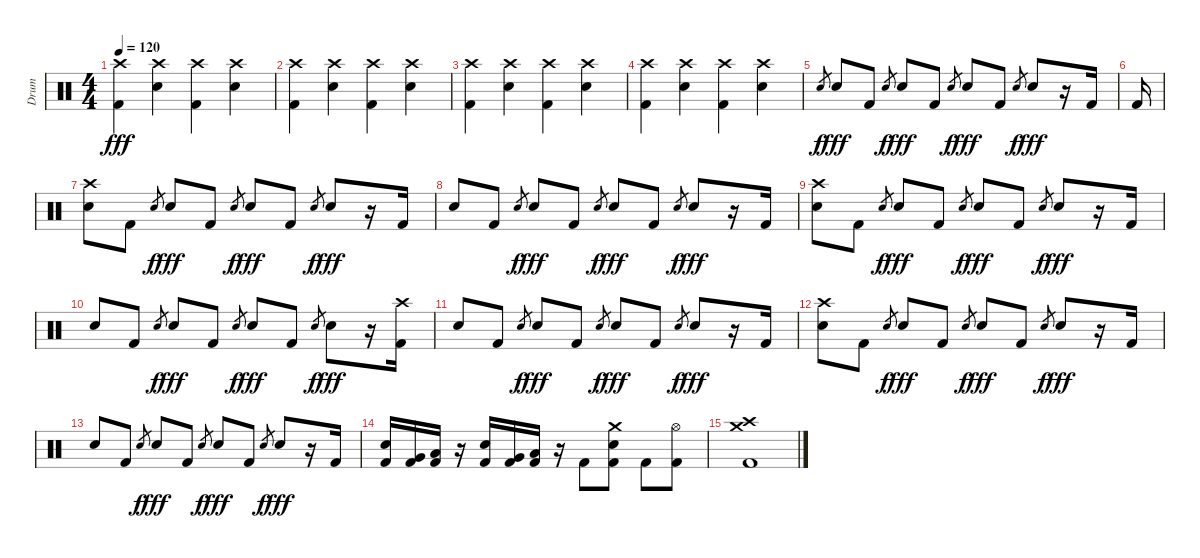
\track ("Drum" "Drum") {instrument percussion}
\staff {score}
\articulation defaults
\ts (4 4)
\tempo 120
\clef neutral
\ks c
("Crash high (hit)" "Kick (hit) 2").4{dy fff} ("Crash high (hit)" "Snare (hit) 2").4 ("Crash high (hit)" "Kick (hit) 2").4 ("Crash high (hit)" "Snare (hit) 2").4 |
("Crash high (hit)" "Kick (hit) 2").4 ("Crash high (hit)" "Snare (hit) 2").4 ("Crash high (hit)" "Kick (hit) 2").4 ("Crash high (hit)" "Snare (hit) 2").4 |
("Crash high (hit)" "Kick (hit) 2").4 ("Crash high (hit)" "Snare (hit) 2").4 ("Crash high (hit)" "Kick (hit) 2").4 ("Crash high (hit)" "Snare (hit) 2").4 |
("Crash high (hit)" "Kick (hit) 2").4 ("Crash high (hit)" "Snare (hit) 2").4 ("Crash high (hit)" "Kick (hit) 2").4 ("Crash high (hit)" "Snare (hit) 2").4 |
"Snare (hit) 2".8{gr dy f} "Snare (hit) 2".8{dy fff} "Kick (hit) 2".8 "Snare (hit) 2".8{gr dy f} "Snare (hit) 2".8{dy fff} "Kick (hit) 2".8 "Snare (hit) 2".8{gr dy f} "Snare (hit) 2".8{dy fff} "Kick (hit) 2".8 "Snare (hit) 2".8{gr dy f} "Snare (hit) 2".8{dy fff} r.16 "Kick (hit) 2".16 |
"Kick (hit) 2".16 |
("Crash high (hit)" "Snare (hit) 2").8 "Kick (hit) 2".8 "Snare (hit) 2".8{gr dy f} "Snare (hit) 2".8{dy fff} "Kick (hit) 2".8 "Snare (hit) 2".8{gr dy f} "Snare (hit) 2".8{dy fff} "Kick (hit) 2".8 "Snare (hit) 2".8{gr dy f} "Snare (hit) 2".8{dy fff} r.16 "Kick (hit) 2".16 |
"Snare (hit) 2".8 "Kick (hit) 2".8 "Snare (hit) 2".8{gr dy f} "Snare (hit) 2".8{dy fff} "Kick (hit) 2".8 "Snare (hit) 2".8{gr dy f} "Snare (hit) 2".8{dy fff} "Kick (hit) 2".8 "Snare (hit) 2".8{gr dy f} "Snare (hit) 2".8{dy fff} r.16 "Kick (hit) 2".16 |
("Crash high (hit)" "Snare (hit) 2").8 "Kick (hit) 2".8 "Snare (hit) 2".8{gr dy f} "Snare (hit) 2".8{dy fff} "Kick (hit) 2".8 "Snare (hit) 2".8{gr dy f} "Snare (hit) 2".8{dy fff} "Kick (hit) 2".8 "Snare (hit) 2".8{gr dy f} "Snare (hit) 2".8{dy fff} r.16 "Kick (hit) 2".16 |
"Snare (hit) 2".8 "Kick (hit) 2".8 "Snare (hit) 2".8{gr dy f} "Snare (hit) 2".8{dy fff} "Kick (hit) 2".8 "Snare (hit) 2".8{gr dy f} "Snare (hit) 2".8{dy fff} "Kick (hit) 2".8 "Snare (hit) 2".8{gr dy f} "Snare (hit) 2".8{dy fff} r.16 ("Crash high (hit)" "Kick (hit) 2").16 |
"Snare (hit) 2".8 "Kick (hit) 2".8 "Snare (hit) 2".8{gr dy f} "Snare (hit) 2".8{dy fff} "Kick (hit) 2".8 "Snare (hit) 2".8{gr dy f} "Snare (hit) 2".8{dy fff} "Kick (hit) 2".8 "Snare (hit) 2".8{gr dy f} "Snare (hit) 2".8{dy fff} r.16 "Kick (hit) 2".16 |
("Crash high (hit)" "Snare (hit) 2").8 "Kick (hit) 2".8 "Snare (hit) 2".8{gr dy f} "Snare (hit) 2".8{dy fff} "Kick (hit) 2".8 "Snare (hit) 2".8{gr dy f} "Snare (hit) 2".8{dy fff} "Kick (hit) 2".8 "Snare (hit) 2".8{gr dy f} "Snare (hit) 2".8{dy fff} r.16 "Kick (hit) 2".16 |
"Snare (hit) 2".8 "Kick (hit) 2".8 "Snare (hit) 2".8{gr dy f} "Snare (hit) 2".8{dy fff} "Kick (hit) 2".8 "Snare (hit) 2".8{gr dy f} "Snare (hit) 2".8{dy fff} "Kick (hit) 2".8 "Snare (hit) 2".8{gr dy f} "Snare (hit) 2".8{dy fff} r.16 "Kick (hit) 2".16 |
("Snare (hit) 2" "Kick (hit) 2").16 ("Very Low Tom (hit)" "Kick (hit) 2").16 ("Low Floor Tom (hit)" "Kick (hit) 2").16 r.16 ("Snare (hit) 2" "Kick (hit) 2").16 ("Very Low Tom (hit)" "Kick (hit) 2").16 ("Low Floor Tom (hit)" "Kick (hit) 2").16 r.16 "Kick (hit) 2".8 ("Crash medium (hit)" "Snare (hit) 2" "Kick (hit) 2").8 "Kick (hit) 2".8 ("Hi-Hat (open)" "Kick (hit) 2").8 |
("Crash high (hit)" "Crash medium (hit)" "Kick (hit) 2").1
